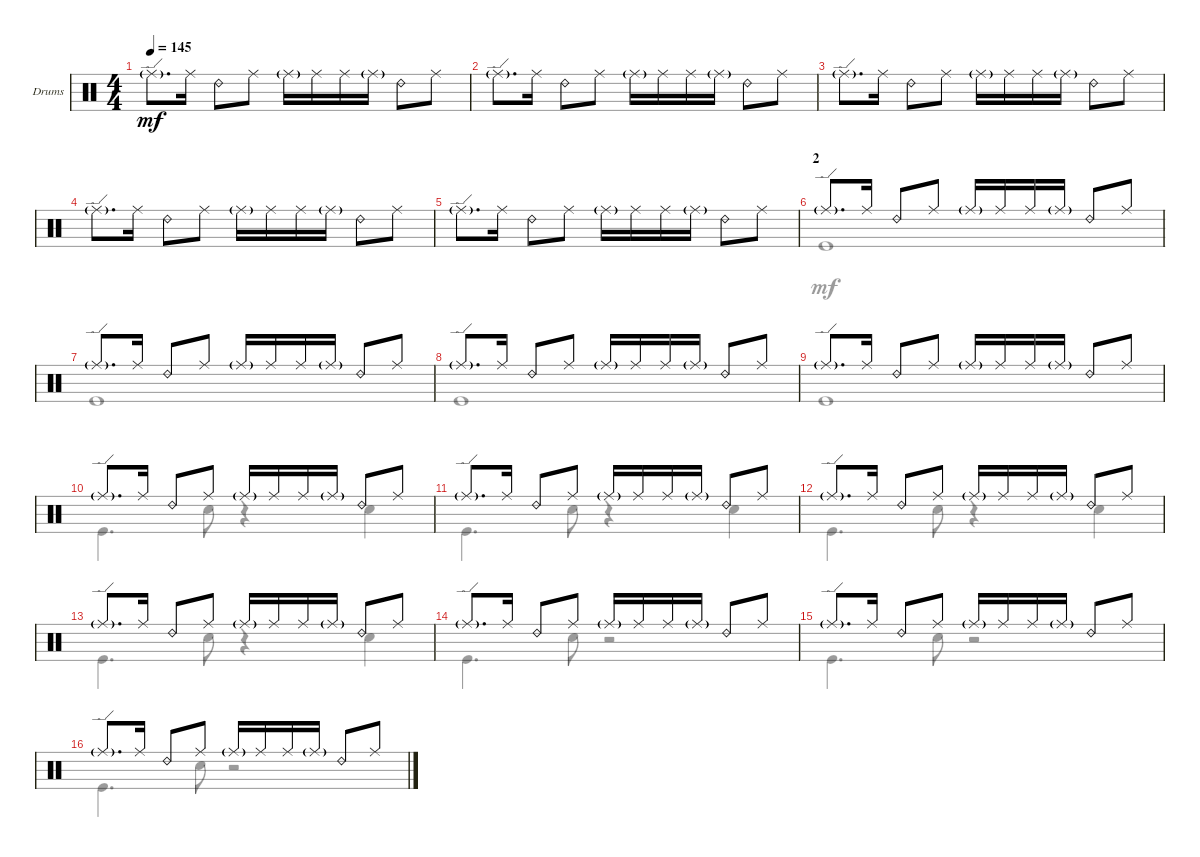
\defaultSystemsLayout 4
\bracketExtendMode groupsimilarinstruments
\firstSystemTrackNameOrientation horizontal
\otherSystemsTrackNameOrientation horizontal
\track ("Drumkit" "Drums") {instrument percussion}
\staff {score}
\articulation defaults
\voice
\ts (4 4)
\tempo 145
\clef neutral
\scale
0.333333
\ks c "Ride (edge)"{g}.8{d dy mf} "Ride (middle)".16 "Ride (bell) 2".8 "Ride (middle)".8 "Ride (middle)"{g}.16 "Ride (middle)".16 "Ride (middle)".16 "Ride (middle)"{g}.16 "Ride (bell) 2".8 "Ride (middle)".8
|
\scale
0.333333 "Ride (edge)"{g}.8{d} "Ride (middle)".16 "Ride (bell) 2".8 "Ride (middle)".8 "Ride (middle)"{g}.16 "Ride (middle)".16 "Ride (middle)".16 "Ride (middle)"{g}.16 "Ride (bell) 2".8 "Ride (middle)".8 |
"Ride (edge)"{g}.8{d} "Ride (middle)".16 "Ride (bell) 2".8 "Ride (middle)".8 "Ride (middle)"{g}.16 "Ride (middle)".16 "Ride (middle)".16 "Ride (middle)"{g}.16 "Ride (bell) 2".8 "Ride (middle)".8 |
"Ride (edge)"{g}.8{d} "Ride (middle)".16 "Ride (bell) 2".8 "Ride (middle)".8 "Ride (middle)"{g}.16 "Ride (middle)".16 "Ride (middle)".16 "Ride (middle)"{g}.16 "Ride (bell) 2".8 "Ride (middle)".8 |
"Ride (edge)"{g}.8{d} "Ride (middle)".16 "Ride (bell) 2".8 "Ride (middle)".8 "Ride (middle)"{g}.16 "Ride (middle)".16 "Ride (middle)".16 "Ride (middle)"{g}.16 "Ride (bell) 2".8 "Ride (middle)".8 |
\section ("" "2")
"Ride (edge)"{g}.8{d} "Ride (middle)".16 "Ride (bell) 2".8 "Ride (middle)".8 "Ride (middle)"{g}.16 "Ride (middle)".16 "Ride (middle)".16 "Ride (middle)"{g}.16 "Ride (bell) 2".8 "Ride (middle)".8 |
"Ride (edge)"{g}.8{d} "Ride (middle)".16 "Ride (bell) 2".8 "Ride (middle)".8 "Ride (middle)"{g}.16 "Ride (middle)".16 "Ride (middle)".16 "Ride (middle)"{g}.16 "Ride (bell) 2".8 "Ride (middle)".8 |
"Ride (edge)"{g}.8{d} "Ride (middle)".16 "Ride (bell) 2".8 "Ride (middle)".8 "Ride (middle)"{g}.16 "Ride (middle)".16 "Ride (middle)".16 "Ride (middle)"{g}.16 "Ride (bell) 2".8 "Ride (middle)".8 |
"Ride (edge)"{g}.8{d} "Ride (middle)".16 "Ride (bell) 2".8 "Ride (middle)".8 "Ride (middle)"{g}.16 "Ride (middle)".16 "Ride (middle)".16 "Ride (middle)"{g}.16 "Ride (bell) 2".8 "Ride (middle)".8 |
"Ride (edge)"{g}.8{d} "Ride (middle)".16 "Ride (bell) 2".8 "Ride (middle)".8 "Ride (middle)"{g}.16 "Ride (middle)".16 "Ride (middle)".16 "Ride (middle)"{g}.16 "Ride (bell) 2".8 "Ride (middle)".8 |
"Ride (edge)"{g}.8{d} "Ride (middle)".16 "Ride (bell) 2".8 "Ride (middle)".8 "Ride (middle)"{g}.16 "Ride (middle)".16 "Ride (middle)".16 "Ride (middle)"{g}.16 "Ride (bell) 2".8 "Ride (middle)".8 |
"Ride (edge)"{g}.8{d} "Ride (middle)".16 "Ride (bell) 2".8 "Ride (middle)".8 "Ride (middle)"{g}.16 "Ride (middle)".16 "Ride (middle)".16 "Ride (middle)"{g}.16 "Ride (bell) 2".8 "Ride (middle)".8 |
"Ride (edge)"{g}.8{d} "Ride (middle)".16 "Ride (bell) 2".8 "Ride (middle)".8 "Ride (middle)"{g}.16 "Ride (middle)".16 "Ride (middle)".16 "Ride (middle)"{g}.16 "Ride (bell) 2".8 "Ride (middle)".8 |
"Ride (edge)"{g}.8{d} "Ride (middle)".16 "Ride (bell) 2".8 "Ride (middle)".8 "Ride (middle)"{g}.16 "Ride (middle)".16 "Ride (middle)".16 "Ride (middle)"{g}.16 "Ride (bell) 2".8 "Ride (middle)".8 |
"Ride (edge)"{g}.8{d} "Ride (middle)".16 "Ride (bell) 2".8 "Ride (middle)".8 "Ride (middle)"{g}.16 "Ride (middle)".16 "Ride (middle)".16 "Ride (middle)"{g}.16 "Ride (bell) 2".8 "Ride (middle)".8 |
"Ride (edge)"{g}.8{d} "Ride (middle)".16 "Ride (bell) 2".8 "Ride (middle)".8 "Ride (middle)"{g}.16 "Ride (middle)".16 "Ride (middle)".16 "Ride (middle)"{g}.16 "Ride (bell) 2".8 "Ride (middle)".8
\voice
\clef neutral
\ottava regular
\simile none
\scale
0.333333
\ks c
|
\scale
0.333333 |
|
|
|
"Kick (hit)".1 |
"Kick (hit)".1 |
"Kick (hit)".1 |
"Kick (hit)".1 |
"Kick (hit)".4{d} "Snare (hit) 2".8 r.4 "Snare (hit) 2".4 |
"Kick (hit)".4{d} "Snare (hit) 2".8 r.4 "Snare (hit) 2".4 |
"Kick (hit)".4{d} "Snare (hit) 2".8 r.4 "Snare (hit) 2".4 |
"Kick (hit)".4{d} "Snare (hit) 2".8 r.4 "Snare (hit) 2".4 |
"Kick (hit)".4{d} "Snare (hit) 2".8 r.2 |
"Kick (hit)".4{d} "Snare (hit) 2".8 r.2 |
"Kick (hit)".4{d} "Snare (hit) 2".8 r.2
